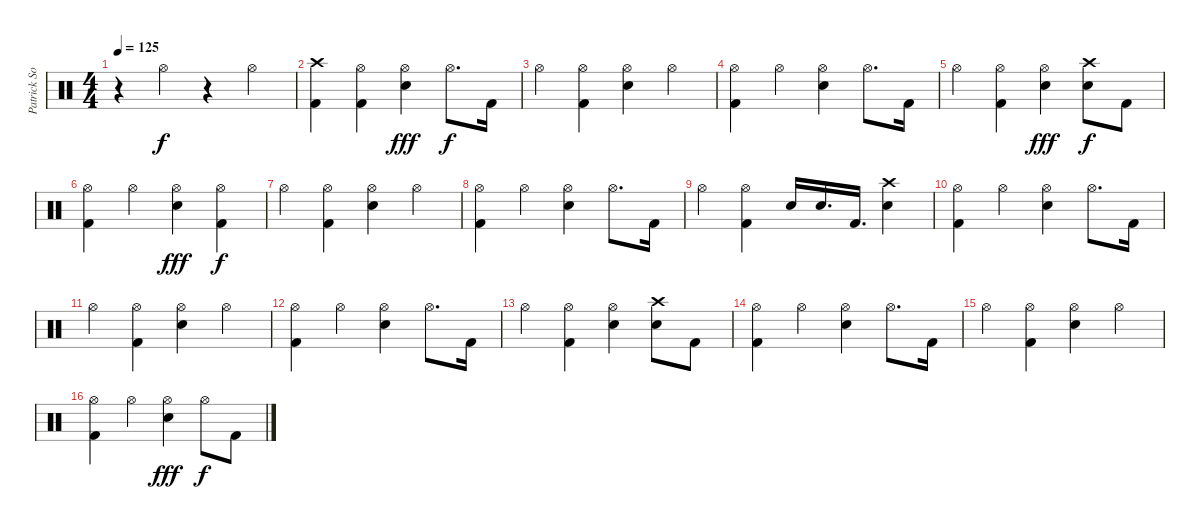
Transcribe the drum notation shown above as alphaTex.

\track ("Patrick Soria" "Patrick So") {instrument percussion}
\staff {score}
\articulation defaults
\ts (4 4)
\tempo 125
\clef neutral
\ks c
r.4{dy f} "Hi-Hat (open)".4 r.4 "Hi-Hat (open)".4 |
("Crash high (hit)" "Kick (hit) 2").4 ("Hi-Hat (open)" "Kick (hit) 2").4 ("Hi-Hat (open)" "Snare (hit) 2").4{dy fff} "Hi-Hat (open)".8{d dy f} "Kick (hit) 2".16 |
"Hi-Hat (open)".4 ("Hi-Hat (open)" "Kick (hit) 2").4 ("Hi-Hat (open)" "Snare (hit) 2").4 "Hi-Hat (open)".4 |
("Hi-Hat (open)" "Kick (hit) 2").4 "Hi-Hat (open)".4 ("Hi-Hat (open)" "Snare (hit) 2").4 "Hi-Hat (open)".8{d} "Kick (hit) 2".16 |
"Hi-Hat (open)".4 ("Hi-Hat (open)" "Kick (hit) 2").4 ("Hi-Hat (open)" "Snare (hit) 2").4{dy fff} ("Crash high (hit)" "Snare (hit) 2").8{dy f} "Kick (hit) 2".8 |
("Hi-Hat (open)" "Kick (hit) 2").4 "Hi-Hat (open)".4 ("Hi-Hat (open)" "Snare (hit) 2").4{dy fff} ("Hi-Hat (open)" "Kick (hit) 2").4{dy f} |
"Hi-Hat (open)".4 ("Hi-Hat (open)" "Kick (hit) 2").4 ("Hi-Hat (open)" "Snare (hit) 2").4 "Hi-Hat (open)".4 |
("Hi-Hat (open)" "Kick (hit) 2").4 "Hi-Hat (open)".4 ("Hi-Hat (open)" "Snare (hit) 2").4 "Hi-Hat (open)".8{d} "Kick (hit) 2".16 |
"Hi-Hat (open)".4 ("Hi-Hat (open)" "Kick (hit) 2").4 "Snare (hit) 2".16 "Snare (hit) 2".16{d} "Kick (hit) 2".16{d} ("Crash high (hit)" "Snare (hit) 2").4 |
("Hi-Hat (open)" "Kick (hit) 2").4 "Hi-Hat (open)".4 ("Hi-Hat (open)" "Snare (hit) 2").4 "Hi-Hat (open)".8{d} "Kick (hit) 2".16 |
"Hi-Hat (open)".4 ("Hi-Hat (open)" "Kick (hit) 2").4 ("Hi-Hat (open)" "Snare (hit) 2").4 "Hi-Hat (open)".4 |
("Hi-Hat (open)" "Kick (hit) 2").4 "Hi-Hat (open)".4 ("Hi-Hat (open)" "Snare (hit) 2").4 "Hi-Hat (open)".8{d} "Kick (hit) 2".16 |
"Hi-Hat (open)".4 ("Hi-Hat (open)" "Kick (hit) 2").4 ("Hi-Hat (open)" "Snare (hit) 2").4 ("Crash high (hit)" "Snare (hit) 2").8 "Kick (hit) 2".8 |
("Hi-Hat (open)" "Kick (hit) 2").4 "Hi-Hat (open)".4 ("Hi-Hat (open)" "Snare (hit) 2").4 "Hi-Hat (open)".8{d} "Kick (hit) 2".16 |
"Hi-Hat (open)".4 ("Hi-Hat (open)" "Kick (hit) 2").4 ("Hi-Hat (open)" "Snare (hit) 2").4 "Hi-Hat (open)".4 |
("Hi-Hat (open)" "Kick (hit) 2").4 "Hi-Hat (open)".4 ("Hi-Hat (open)" "Snare (hit) 2").4{dy fff} "Hi-Hat (open)".8{dy f} "Kick (hit) 2".8
